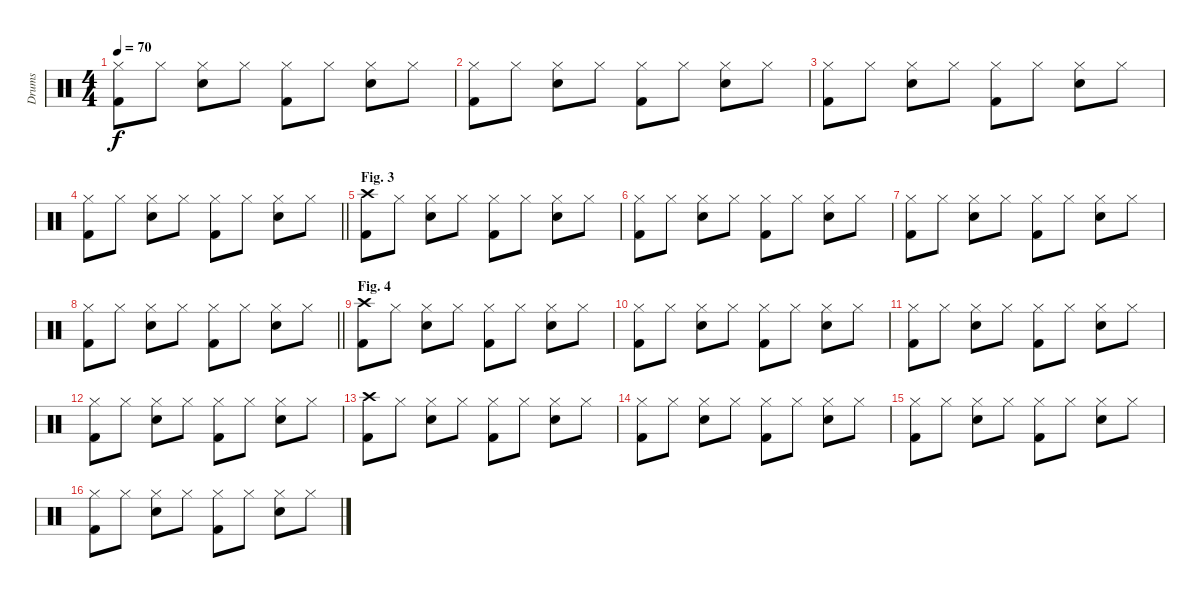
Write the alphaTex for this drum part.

\track ("Drums" "Drums") {instrument percussion}
\staff {score}
\articulation defaults
\ts (4 4)
\tempo 70
\clef neutral
\ks c
("Hi-Hat (closed)" "Kick (hit) 2").8{dy f} "Hi-Hat (closed)".8 ("Hi-Hat (closed)" "Snare (hit) 2").8 "Hi-Hat (closed)".8 ("Hi-Hat (closed)" "Kick (hit) 2").8 "Hi-Hat (closed)".8 ("Hi-Hat (closed)" "Snare (hit) 2").8 "Hi-Hat (closed)".8 |
("Hi-Hat (closed)" "Kick (hit) 2").8 "Hi-Hat (closed)".8 ("Hi-Hat (closed)" "Snare (hit) 2").8 "Hi-Hat (closed)".8 ("Hi-Hat (closed)" "Kick (hit) 2").8 "Hi-Hat (closed)".8 ("Hi-Hat (closed)" "Snare (hit) 2").8 "Hi-Hat (closed)".8 |
("Hi-Hat (closed)" "Kick (hit) 2").8 "Hi-Hat (closed)".8 ("Hi-Hat (closed)" "Snare (hit) 2").8 "Hi-Hat (closed)".8 ("Hi-Hat (closed)" "Kick (hit) 2").8 "Hi-Hat (closed)".8 ("Hi-Hat (closed)" "Snare (hit) 2").8 "Hi-Hat (closed)".8 |
\barLineRight lightlight
("Hi-Hat (closed)" "Kick (hit) 2").8 "Hi-Hat (closed)".8 ("Hi-Hat (closed)" "Snare (hit) 2").8 "Hi-Hat (closed)".8 ("Hi-Hat (closed)" "Kick (hit) 2").8 "Hi-Hat (closed)".8 ("Hi-Hat (closed)" "Snare (hit) 2").8 "Hi-Hat (closed)".8 |
\section ("" "Fig. 3")
("Crash high (hit)" "Kick (hit) 2").8 "Hi-Hat (closed)".8 ("Hi-Hat (closed)" "Snare (hit) 2").8 "Hi-Hat (closed)".8 ("Hi-Hat (closed)" "Kick (hit) 2").8 "Hi-Hat (closed)".8 ("Hi-Hat (closed)" "Snare (hit) 2").8 "Hi-Hat (closed)".8 |
("Hi-Hat (closed)" "Kick (hit) 2").8 "Hi-Hat (closed)".8 ("Hi-Hat (closed)" "Snare (hit) 2").8 "Hi-Hat (closed)".8 ("Hi-Hat (closed)" "Kick (hit) 2").8 "Hi-Hat (closed)".8 ("Hi-Hat (closed)" "Snare (hit) 2").8 "Hi-Hat (closed)".8 |
("Hi-Hat (closed)" "Kick (hit) 2").8 "Hi-Hat (closed)".8 ("Hi-Hat (closed)" "Snare (hit) 2").8 "Hi-Hat (closed)".8 ("Hi-Hat (closed)" "Kick (hit) 2").8 "Hi-Hat (closed)".8 ("Hi-Hat (closed)" "Snare (hit) 2").8 "Hi-Hat (closed)".8 |
\barLineRight lightlight
("Hi-Hat (closed)" "Kick (hit) 2").8 "Hi-Hat (closed)".8 ("Hi-Hat (closed)" "Snare (hit) 2").8 "Hi-Hat (closed)".8 ("Hi-Hat (closed)" "Kick (hit) 2").8 "Hi-Hat (closed)".8 ("Hi-Hat (closed)" "Snare (hit) 2").8 "Hi-Hat (closed)".8 |
\section ("" "Fig. 4")
("Crash high (hit)" "Kick (hit) 2").8 "Hi-Hat (closed)".8 ("Hi-Hat (closed)" "Snare (hit) 2").8 "Hi-Hat (closed)".8 ("Hi-Hat (closed)" "Kick (hit) 2").8 "Hi-Hat (closed)".8 ("Hi-Hat (closed)" "Snare (hit) 2").8 "Hi-Hat (closed)".8 |
("Hi-Hat (closed)" "Kick (hit) 2").8 "Hi-Hat (closed)".8 ("Hi-Hat (closed)" "Snare (hit) 2").8 "Hi-Hat (closed)".8 ("Hi-Hat (closed)" "Kick (hit) 2").8 "Hi-Hat (closed)".8 ("Hi-Hat (closed)" "Snare (hit) 2").8 "Hi-Hat (closed)".8 |
("Hi-Hat (closed)" "Kick (hit) 2").8 "Hi-Hat (closed)".8 ("Hi-Hat (closed)" "Snare (hit) 2").8 "Hi-Hat (closed)".8 ("Hi-Hat (closed)" "Kick (hit) 2").8 "Hi-Hat (closed)".8 ("Hi-Hat (closed)" "Snare (hit) 2").8 "Hi-Hat (closed)".8 |
("Hi-Hat (closed)" "Kick (hit) 2").8 "Hi-Hat (closed)".8 ("Hi-Hat (closed)" "Snare (hit) 2").8 "Hi-Hat (closed)".8 ("Hi-Hat (closed)" "Kick (hit) 2").8 "Hi-Hat (closed)".8 ("Hi-Hat (closed)" "Snare (hit) 2").8 "Hi-Hat (closed)".8 |
("Crash high (hit)" "Kick (hit) 2").8 "Hi-Hat (closed)".8 ("Hi-Hat (closed)" "Snare (hit) 2").8 "Hi-Hat (closed)".8 ("Hi-Hat (closed)" "Kick (hit) 2").8 "Hi-Hat (closed)".8 ("Hi-Hat (closed)" "Snare (hit) 2").8 "Hi-Hat (closed)".8 |
("Hi-Hat (closed)" "Kick (hit) 2").8 "Hi-Hat (closed)".8 ("Hi-Hat (closed)" "Snare (hit) 2").8 "Hi-Hat (closed)".8 ("Hi-Hat (closed)" "Kick (hit) 2").8 "Hi-Hat (closed)".8 ("Hi-Hat (closed)" "Snare (hit) 2").8 "Hi-Hat (closed)".8 |
("Hi-Hat (closed)" "Kick (hit) 2").8 "Hi-Hat (closed)".8 ("Hi-Hat (closed)" "Snare (hit) 2").8 "Hi-Hat (closed)".8 ("Hi-Hat (closed)" "Kick (hit) 2").8 "Hi-Hat (closed)".8 ("Hi-Hat (closed)" "Snare (hit) 2").8 "Hi-Hat (closed)".8 |
("Hi-Hat (closed)" "Kick (hit) 2").8 "Hi-Hat (closed)".8 ("Hi-Hat (closed)" "Snare (hit) 2").8 "Hi-Hat (closed)".8 ("Hi-Hat (closed)" "Kick (hit) 2").8 "Hi-Hat (closed)".8 ("Hi-Hat (closed)" "Snare (hit) 2").8 "Hi-Hat (closed)".8
